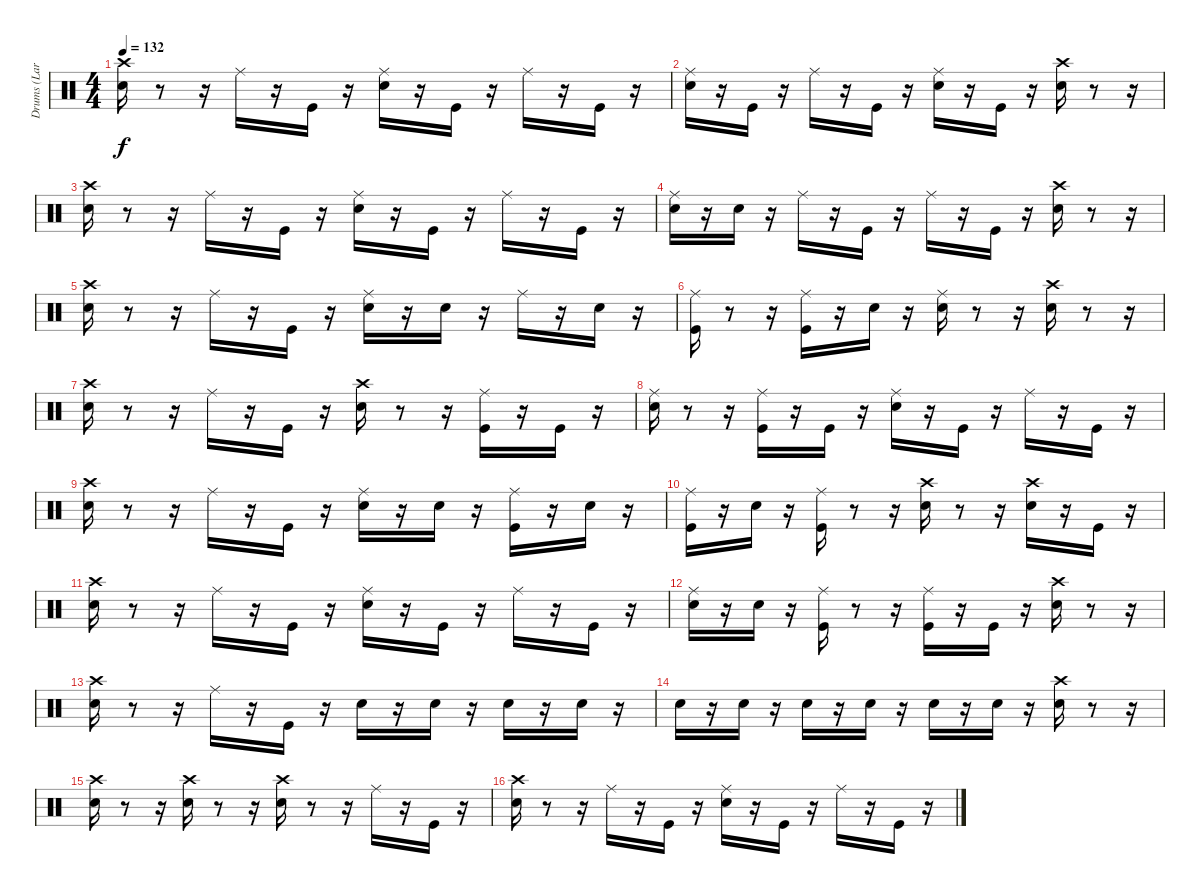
\track ("Drums (Lars)" "Drums (Lar") {instrument percussion}
\staff {score}
\articulation defaults
\ts (4 4)
\tempo 132
\clef neutral
\ks c
("Crash high (hit)" "Snare (hit) 2").16{dy f} r.8 r.16 "Ride (middle)".16 r.16 "Kick (hit)".16 r.16 ("Snare (hit) 2" "Ride (middle)").16 r.16 "Kick (hit)".16 r.16 "Ride (middle)".16 r.16 "Kick (hit)".16 r.16 |
("Snare (hit) 2" "Ride (middle)").16 r.16 "Kick (hit)".16 r.16 "Ride (middle)".16 r.16 "Kick (hit)".16 r.16 ("Snare (hit) 2" "Ride (middle)").16 r.16 "Kick (hit)".16 r.16 ("Snare (hit) 2" "Crash high (hit)").16 r.8 r.16 |
("Snare (hit) 2" "Crash high (hit)").16 r.8 r.16 "Ride (middle)".16 r.16 "Kick (hit)".16 r.16 ("Snare (hit) 2" "Ride (middle)").16 r.16 "Kick (hit)".16 r.16 "Ride (middle)".16 r.16 "Kick (hit)".16 r.16 |
("Snare (hit) 2" "Ride (middle)").16 r.16 "Snare (hit) 2".16 r.16 "Ride (middle)".16 r.16 "Kick (hit)".16 r.16 "Ride (middle)".16 r.16 "Kick (hit)".16 r.16 ("Snare (hit) 2" "Crash high (hit)").16 r.8 r.16 |
("Crash high (hit)" "Snare (hit) 2").16 r.8 r.16 "Ride (middle)".16 r.16 "Kick (hit)".16 r.16 ("Snare (hit) 2" "Ride (middle)").16 r.16 "Snare (hit) 2".16 r.16 "Ride (middle)".16 r.16 "Snare (hit) 2".16 r.16 |
("Ride (middle)" "Kick (hit)").16 r.8 r.16 ("Ride (middle)" "Kick (hit)").16 r.16 "Snare (hit) 2".16 r.16 ("Ride (middle)" "Snare (hit) 2").16 r.8 r.16 ("Snare (hit) 2" "Crash high (hit)").16 r.8 r.16 |
("Snare (hit) 2" "Crash high (hit)").16 r.8 r.16 "Ride (middle)".16 r.16 "Kick (hit)".16 r.16 ("Snare (hit) 2" "Crash high (hit)").16 r.8 r.16 ("Ride (middle)" "Kick (hit)").16 r.16 "Kick (hit)".16 r.16 |
("Ride (middle)" "Snare (hit) 2").16 r.8 r.16 ("Ride (middle)" "Kick (hit)").16 r.16 "Kick (hit)".16 r.16 ("Ride (middle)" "Snare (hit) 2").16 r.16 "Kick (hit)".16 r.16 "Ride (middle)".16 r.16 "Kick (hit)".16 r.16 |
("Crash high (hit)" "Snare (hit) 2").16 r.8 r.16 "Ride (middle)".16 r.16 "Kick (hit)".16 r.16 ("Snare (hit) 2" "Ride (middle)").16 r.16 "Snare (hit) 2".16 r.16 ("Ride (middle)" "Kick (hit)").16 r.16 "Snare (hit) 2".16 r.16 |
("Ride (middle)" "Kick (hit)").16 r.16 "Snare (hit) 2".16 r.16 ("Ride (middle)" "Kick (hit)").16 r.8 r.16 ("Snare (hit) 2" "Crash high (hit)").16 r.8 r.16 ("Crash high (hit)" "Snare (hit) 2").16 r.16 "Kick (hit)".16 r.16 |
("Snare (hit) 2" "Crash high (hit)").16 r.8 r.16 "Ride (middle)".16 r.16 "Kick (hit)".16 r.16 ("Snare (hit) 2" "Ride (middle)").16 r.16 "Kick (hit)".16 r.16 "Ride (middle)".16 r.16 "Kick (hit)".16 r.16 |
("Ride (middle)" "Snare (hit) 2").16 r.16 "Snare (hit) 2".16 r.16 ("Ride (middle)" "Kick (hit)").16 r.8 r.16 ("Kick (hit)" "Ride (middle)").16 r.16 "Kick (hit)".16 r.16 ("Crash high (hit)" "Snare (hit) 2").16 r.8 r.16 |
("Crash high (hit)" "Snare (hit) 2").16 r.8 r.16 "Ride (middle)".16 r.16 "Kick (hit)".16 r.16 "Snare (hit) 2".16 r.16 "Snare (hit) 2".16 r.16 "Electric Snare (hit)".16 r.16 "Snare (hit) 2".16 r.16 |
"Snare (hit) 2".16 r.16 "Snare (hit) 2".16 r.16 "Electric Snare (hit)".16 r.16 "Snare (hit) 2".16 r.16 "Snare (hit) 2".16 r.16 "Snare (hit) 2".16 r.16 ("Snare (hit) 2" "Crash high (hit)").16 r.8 r.16 |
("Snare (hit) 2" "Crash high (hit)").16 r.8 r.16 ("Crash high (hit)" "Electric Snare (hit)").16 r.8 r.16 ("Crash high (hit)" "Electric Snare (hit)").16 r.8 r.16 "Ride (middle)".16 r.16 "Kick (hit)".16 r.16 |
("Crash high (hit)" "Snare (hit) 2").16 r.8 r.16 "Ride (middle)".16 r.16 "Kick (hit)".16 r.16 ("Snare (hit) 2" "Ride (middle)").16 r.16 "Kick (hit)".16 r.16 "Ride (middle)".16 r.16 "Kick (hit)".16 r.16
